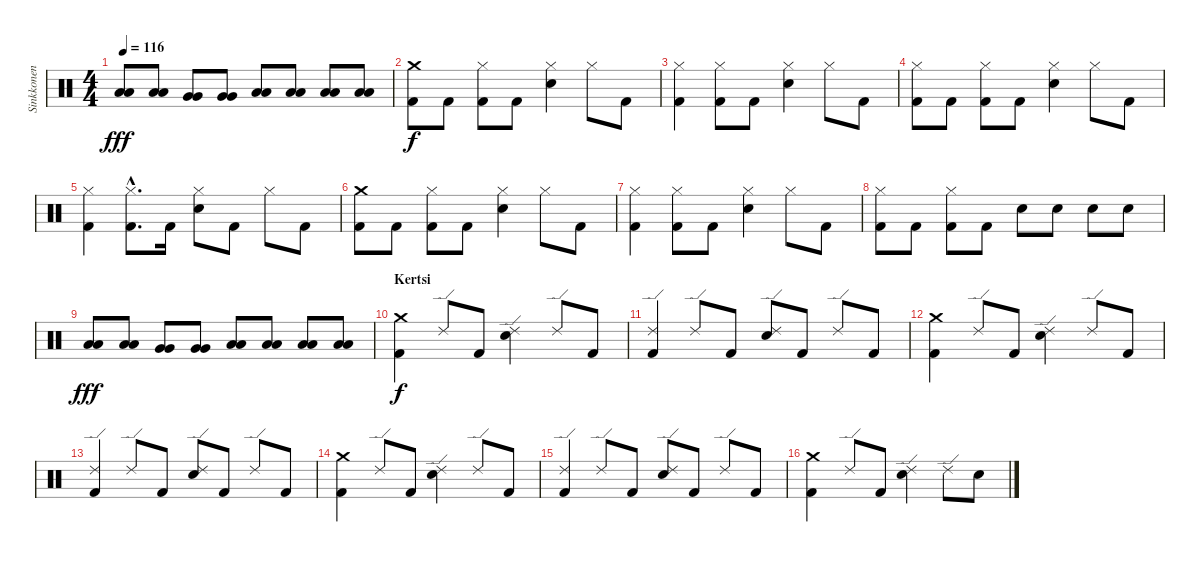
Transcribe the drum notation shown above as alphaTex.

\track ("Sinkkonen" "Sinkkonen") {instrument percussion}
\staff {score}
\articulation defaults
\ts (4 4)
\tempo 116
\clef neutral
\ks c
("Low Tom (hit)" "Low Tom (hit)").8{dy fff} ("Low Tom (hit)" "Low Tom (hit)").8 ("Very Low Tom (hit)" "Very Low Tom (hit)").8 ("Very Low Tom (hit)" "Very Low Tom (hit)").8 ("Low Floor Tom (hit)" "Low Floor Tom (hit)").8 ("Low Floor Tom (hit)" "Low Floor Tom (hit)").8 ("Low Floor Tom (hit)" "Low Floor Tom (hit)").8 ("Low Floor Tom (hit)" "Low Floor Tom (hit)").8 |
("Kick (hit) 2" "Crash medium (hit)").8{dy f} "Kick (hit) 2".8 ("Kick (hit) 2" "Hi-Hat (closed)").8 "Kick (hit) 2".8 ("Hi-Hat (closed)" "Snare (hit) 2").4 "Hi-Hat (closed)".8 "Kick (hit) 2".8 |
("Kick (hit) 2" "Hi-Hat (closed)").4 ("Kick (hit) 2" "Hi-Hat (closed)").8 "Kick (hit) 2".8 ("Hi-Hat (closed)" "Snare (hit) 2").4 "Hi-Hat (closed)".8 "Kick (hit) 2".8 |
("Kick (hit) 2" "Hi-Hat (closed)").8 "Kick (hit) 2".8 ("Kick (hit) 2" "Hi-Hat (closed)").8 "Kick (hit) 2".8 ("Hi-Hat (closed)" "Snare (hit) 2").4 "Hi-Hat (closed)".8 "Kick (hit) 2".8 |
("Kick (hit) 2" "Hi-Hat (closed)").4 ("Kick (hit) 2"{hac} "Hi-Hat (closed)"{hac}).8{d} "Kick (hit) 2".16 ("Hi-Hat (closed)" "Snare (hit) 2").8 "Kick (hit) 2".8 "Hi-Hat (closed)".8 "Kick (hit) 2".8 |
("Kick (hit) 2" "Crash medium (hit)").8 "Kick (hit) 2".8 ("Kick (hit) 2" "Hi-Hat (closed)").8 "Kick (hit) 2".8 ("Hi-Hat (closed)" "Snare (hit) 2").4 "Hi-Hat (closed)".8 "Kick (hit) 2".8 |
("Kick (hit) 2" "Hi-Hat (closed)").4 ("Kick (hit) 2" "Hi-Hat (closed)").8 "Kick (hit) 2".8 ("Hi-Hat (closed)" "Snare (hit) 2").4 "Hi-Hat (closed)".8 "Kick (hit) 2".8 |
("Kick (hit) 2" "Hi-Hat (closed)").8 "Kick (hit) 2".8 ("Kick (hit) 2" "Hi-Hat (closed)").8 "Kick (hit) 2".8 "Snare (hit) 2".8 "Snare (hit) 2".8 "Snare (hit) 2".8 "Snare (hit) 2".8 |
("Low Tom (hit)" "Low Tom (hit)").8{dy fff} ("Low Tom (hit)" "Low Tom (hit)").8 ("Very Low Tom (hit)" "Very Low Tom (hit)").8 ("Very Low Tom (hit)" "Very Low Tom (hit)").8 ("Low Floor Tom (hit)" "Low Floor Tom (hit)").8 ("Low Floor Tom (hit)" "Low Floor Tom (hit)").8 ("Low Floor Tom (hit)" "Low Floor Tom (hit)").8 ("Low Floor Tom (hit)" "Low Floor Tom (hit)").8 |
\section ("" "Kertsi")
("Kick (hit) 2" "Crash medium (hit)").4{dy f} "Ride (edge) 2".8 "Kick (hit) 2".8 ("Ride (edge) 2" "Snare (hit) 2").4 "Ride (edge) 2".8 "Kick (hit) 2".8 |
("Kick (hit) 2" "Ride (edge) 2").4 "Ride (edge) 2".8 "Kick (hit) 2".8 ("Ride (edge) 2" "Snare (hit) 2").8 "Kick (hit) 2".8 "Ride (edge) 2".8 "Kick (hit) 2".8 |
("Kick (hit) 2" "Crash medium (hit)").4 "Ride (edge) 2".8 "Kick (hit) 2".8 ("Ride (edge) 2" "Snare (hit) 2").4 "Ride (edge) 2".8 "Kick (hit) 2".8 |
("Kick (hit) 2" "Ride (edge) 2").4 "Ride (edge) 2".8 "Kick (hit) 2".8 ("Ride (edge) 2" "Snare (hit) 2").8 "Kick (hit) 2".8 "Ride (edge) 2".8 "Kick (hit) 2".8 |
("Kick (hit) 2" "Crash medium (hit)").4 "Ride (edge) 2".8 "Kick (hit) 2".8 ("Ride (edge) 2" "Snare (hit) 2").4 "Ride (edge) 2".8 "Kick (hit) 2".8 |
("Kick (hit) 2" "Ride (edge) 2").4 "Ride (edge) 2".8 "Kick (hit) 2".8 ("Ride (edge) 2" "Snare (hit) 2").8 "Kick (hit) 2".8 "Ride (edge) 2".8 "Kick (hit) 2".8 |
("Kick (hit) 2" "Crash medium (hit)").4 "Ride (edge) 2".8 "Kick (hit) 2".8 ("Ride (edge) 2" "Snare (hit) 2").4 "Ride (edge) 2".8 "Snare (hit) 2".8
